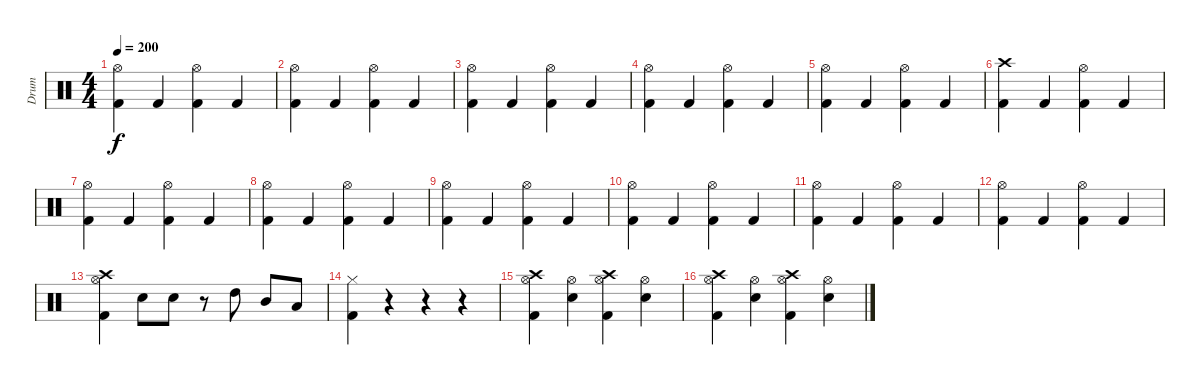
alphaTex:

\track ("Drum" "Drum") {instrument percussion}
\staff {score}
\articulation defaults
\ts (4 4)
\tempo 200
\clef neutral
\ks c
("Hi-Hat (open)" "Kick (hit) 2").4{dy f} "Kick (hit) 2".4 ("Hi-Hat (open)" "Kick (hit) 2").4 "Kick (hit) 2".4 |
("Hi-Hat (open)" "Kick (hit) 2").4 "Kick (hit) 2".4 ("Hi-Hat (open)" "Kick (hit) 2").4 "Kick (hit) 2".4 |
("Hi-Hat (open)" "Kick (hit) 2").4 "Kick (hit) 2".4 ("Hi-Hat (open)" "Kick (hit) 2").4 "Kick (hit) 2".4 |
("Hi-Hat (open)" "Kick (hit) 2").4 "Kick (hit) 2".4 ("Hi-Hat (open)" "Kick (hit) 2").4 "Kick (hit) 2".4 |
("Hi-Hat (open)" "Kick (hit) 2").4 "Kick (hit) 2".4 ("Hi-Hat (open)" "Kick (hit) 2").4 "Kick (hit) 2".4 |
("Crash high (hit)" "Kick (hit) 2").4 "Kick (hit) 2".4 ("Hi-Hat (open)" "Kick (hit) 2").4 "Kick (hit) 2".4 |
("Hi-Hat (open)" "Kick (hit) 2").4 "Kick (hit) 2".4 ("Hi-Hat (open)" "Kick (hit) 2").4 "Kick (hit) 2".4 |
("Hi-Hat (open)" "Kick (hit) 2").4 "Kick (hit) 2".4 ("Hi-Hat (open)" "Kick (hit) 2").4 "Kick (hit) 2".4 |
("Hi-Hat (open)" "Kick (hit) 2").4 "Kick (hit) 2".4 ("Hi-Hat (open)" "Kick (hit) 2").4 "Kick (hit) 2".4 |
("Hi-Hat (open)" "Kick (hit) 2").4 "Kick (hit) 2".4 ("Hi-Hat (open)" "Kick (hit) 2").4 "Kick (hit) 2".4 |
("Hi-Hat (open)" "Kick (hit) 2").4 "Kick (hit) 2".4 ("Hi-Hat (open)" "Kick (hit) 2").4 "Kick (hit) 2".4 |
("Hi-Hat (open)" "Kick (hit) 2").4 "Kick (hit) 2".4 ("Hi-Hat (open)" "Kick (hit) 2").4 "Kick (hit) 2".4 |
("Crash high (hit)" "Hi-Hat (open)" "Kick (hit) 2").4 "Snare (hit) 2".8 "Snare (hit) 2".8 r.8 "High Tom (hit)".8 "Mid Tom (hit)".8 "Low Tom (hit)".8 |
("Hi-Hat (closed)" "Kick (hit) 2").4 r.4 r.4 r.4 |
("Crash high (hit)" "Hi-Hat (open)" "Kick (hit) 2").4 ("Hi-Hat (open)" "Snare (hit) 2").4 ("Crash high (hit)" "Hi-Hat (open)" "Kick (hit) 2").4 ("Hi-Hat (open)" "Snare (hit) 2").4 |
("Crash high (hit)" "Hi-Hat (open)" "Kick (hit) 2").4 ("Hi-Hat (open)" "Snare (hit) 2").4 ("Crash high (hit)" "Hi-Hat (open)" "Kick (hit) 2").4 ("Hi-Hat (open)" "Snare (hit) 2").4
